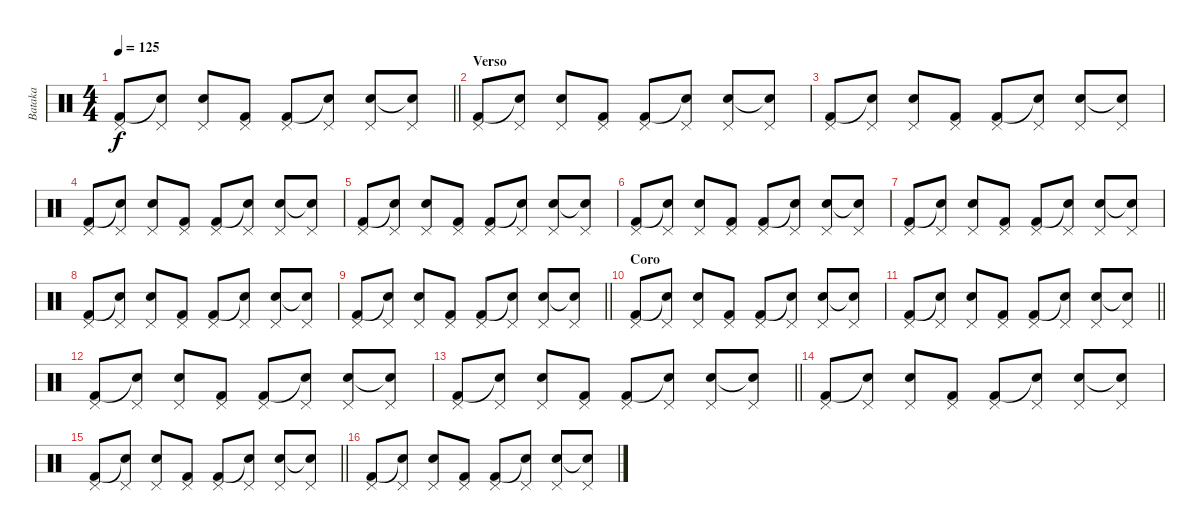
\track ("Bataka" "Bataka") {instrument percussion}
\staff {score}
\articulation defaults
\ts (4 4)
\tempo 125
\clef neutral
\barLineRight lightlight
\ks c
("Pedal Hi-Hat (hit)" "Kick (hit) 2").8{dy f} ("Pedal Hi-Hat (hit)" "Snare (hit)"{t}).8 ("Pedal Hi-Hat (hit)" "Electric Snare (hit)").8 ("Pedal Hi-Hat (hit)" "Kick (hit) 2").8 ("Pedal Hi-Hat (hit)" "Kick (hit) 2").8 ("Pedal Hi-Hat (hit)" "Snare (hit)"{t}).8 ("Pedal Hi-Hat (hit)" "Electric Snare (hit)").8 ("Pedal Hi-Hat (hit)" "Snare (hit)"{t}).8 |
\section ("" "Verso")
("Pedal Hi-Hat (hit)" "Kick (hit) 2").8 ("Pedal Hi-Hat (hit)" "Snare (hit)"{t}).8 ("Pedal Hi-Hat (hit)" "Electric Snare (hit)").8 ("Pedal Hi-Hat (hit)" "Kick (hit) 2").8 ("Pedal Hi-Hat (hit)" "Kick (hit) 2").8 ("Pedal Hi-Hat (hit)" "Snare (hit)"{t}).8 ("Pedal Hi-Hat (hit)" "Electric Snare (hit)").8 ("Pedal Hi-Hat (hit)" "Snare (hit)"{t}).8 |
("Pedal Hi-Hat (hit)" "Kick (hit) 2").8 ("Pedal Hi-Hat (hit)" "Snare (hit)"{t}).8 ("Pedal Hi-Hat (hit)" "Electric Snare (hit)").8 ("Pedal Hi-Hat (hit)" "Kick (hit) 2").8 ("Pedal Hi-Hat (hit)" "Kick (hit) 2").8 ("Pedal Hi-Hat (hit)" "Snare (hit)"{t}).8 ("Pedal Hi-Hat (hit)" "Electric Snare (hit)").8 ("Pedal Hi-Hat (hit)" "Snare (hit)"{t}).8 |
("Pedal Hi-Hat (hit)" "Kick (hit) 2").8 ("Pedal Hi-Hat (hit)" "Snare (hit)"{t}).8 ("Pedal Hi-Hat (hit)" "Electric Snare (hit)").8 ("Pedal Hi-Hat (hit)" "Kick (hit) 2").8 ("Pedal Hi-Hat (hit)" "Kick (hit) 2").8 ("Pedal Hi-Hat (hit)" "Snare (hit)"{t}).8 ("Pedal Hi-Hat (hit)" "Electric Snare (hit)").8 ("Pedal Hi-Hat (hit)" "Snare (hit)"{t}).8 |
("Pedal Hi-Hat (hit)" "Kick (hit) 2").8 ("Pedal Hi-Hat (hit)" "Snare (hit)"{t}).8 ("Pedal Hi-Hat (hit)" "Electric Snare (hit)").8 ("Pedal Hi-Hat (hit)" "Kick (hit) 2").8 ("Pedal Hi-Hat (hit)" "Kick (hit) 2").8 ("Pedal Hi-Hat (hit)" "Snare (hit)"{t}).8 ("Pedal Hi-Hat (hit)" "Electric Snare (hit)").8 ("Pedal Hi-Hat (hit)" "Snare (hit)"{t}).8 |
("Pedal Hi-Hat (hit)" "Kick (hit) 2").8 ("Pedal Hi-Hat (hit)" "Snare (hit)"{t}).8 ("Pedal Hi-Hat (hit)" "Electric Snare (hit)").8 ("Pedal Hi-Hat (hit)" "Kick (hit) 2").8 ("Pedal Hi-Hat (hit)" "Kick (hit) 2").8 ("Pedal Hi-Hat (hit)" "Snare (hit)"{t}).8 ("Pedal Hi-Hat (hit)" "Electric Snare (hit)").8 ("Pedal Hi-Hat (hit)" "Snare (hit)"{t}).8 |
("Pedal Hi-Hat (hit)" "Kick (hit) 2").8 ("Pedal Hi-Hat (hit)" "Snare (hit)"{t}).8 ("Pedal Hi-Hat (hit)" "Electric Snare (hit)").8 ("Pedal Hi-Hat (hit)" "Kick (hit) 2").8 ("Pedal Hi-Hat (hit)" "Kick (hit) 2").8 ("Pedal Hi-Hat (hit)" "Snare (hit)"{t}).8 ("Pedal Hi-Hat (hit)" "Electric Snare (hit)").8 ("Pedal Hi-Hat (hit)" "Snare (hit)"{t}).8 |
("Pedal Hi-Hat (hit)" "Kick (hit) 2").8 ("Pedal Hi-Hat (hit)" "Snare (hit)"{t}).8 ("Pedal Hi-Hat (hit)" "Electric Snare (hit)").8 ("Pedal Hi-Hat (hit)" "Kick (hit) 2").8 ("Pedal Hi-Hat (hit)" "Kick (hit) 2").8 ("Pedal Hi-Hat (hit)" "Snare (hit)"{t}).8 ("Pedal Hi-Hat (hit)" "Electric Snare (hit)").8 ("Pedal Hi-Hat (hit)" "Snare (hit)"{t}).8 |
\barLineRight lightlight
("Pedal Hi-Hat (hit)" "Kick (hit) 2").8 ("Pedal Hi-Hat (hit)" "Snare (hit)"{t}).8 ("Pedal Hi-Hat (hit)" "Electric Snare (hit)").8 ("Pedal Hi-Hat (hit)" "Kick (hit) 2").8 ("Pedal Hi-Hat (hit)" "Kick (hit) 2").8 ("Pedal Hi-Hat (hit)" "Snare (hit)"{t}).8 ("Pedal Hi-Hat (hit)" "Electric Snare (hit)").8 ("Pedal Hi-Hat (hit)" "Snare (hit)"{t}).8 |
\section ("" "Coro")
("Pedal Hi-Hat (hit)" "Kick (hit) 2").8 ("Pedal Hi-Hat (hit)" "Snare (hit)"{t}).8 ("Pedal Hi-Hat (hit)" "Electric Snare (hit)").8 ("Pedal Hi-Hat (hit)" "Kick (hit) 2").8 ("Pedal Hi-Hat (hit)" "Kick (hit) 2").8 ("Pedal Hi-Hat (hit)" "Snare (hit)"{t}).8 ("Pedal Hi-Hat (hit)" "Electric Snare (hit)").8 ("Pedal Hi-Hat (hit)" "Snare (hit)"{t}).8 |
\barLineRight lightlight
("Pedal Hi-Hat (hit)" "Kick (hit) 2").8 ("Pedal Hi-Hat (hit)" "Snare (hit)"{t}).8 ("Pedal Hi-Hat (hit)" "Electric Snare (hit)").8 ("Pedal Hi-Hat (hit)" "Kick (hit) 2").8 ("Pedal Hi-Hat (hit)" "Kick (hit) 2").8 ("Pedal Hi-Hat (hit)" "Snare (hit)"{t}).8 ("Pedal Hi-Hat (hit)" "Electric Snare (hit)").8 ("Pedal Hi-Hat (hit)" "Snare (hit)"{t}).8 |
("Pedal Hi-Hat (hit)" "Kick (hit) 2").8 ("Pedal Hi-Hat (hit)" "Snare (hit)"{t}).8 ("Pedal Hi-Hat (hit)" "Electric Snare (hit)").8 ("Pedal Hi-Hat (hit)" "Kick (hit) 2").8 ("Pedal Hi-Hat (hit)" "Kick (hit) 2").8 ("Pedal Hi-Hat (hit)" "Snare (hit)"{t}).8 ("Pedal Hi-Hat (hit)" "Electric Snare (hit)").8 ("Pedal Hi-Hat (hit)" "Snare (hit)"{t}).8 |
\barLineRight lightlight
("Pedal Hi-Hat (hit)" "Kick (hit) 2").8 ("Pedal Hi-Hat (hit)" "Snare (hit)"{t}).8 ("Pedal Hi-Hat (hit)" "Electric Snare (hit)").8 ("Pedal Hi-Hat (hit)" "Kick (hit) 2").8 ("Pedal Hi-Hat (hit)" "Kick (hit) 2").8 ("Pedal Hi-Hat (hit)" "Snare (hit)"{t}).8 ("Pedal Hi-Hat (hit)" "Electric Snare (hit)").8 ("Pedal Hi-Hat (hit)" "Snare (hit)"{t}).8 |
("Pedal Hi-Hat (hit)" "Kick (hit) 2").8 ("Pedal Hi-Hat (hit)" "Snare (hit)"{t}).8 ("Pedal Hi-Hat (hit)" "Electric Snare (hit)").8 ("Pedal Hi-Hat (hit)" "Kick (hit) 2").8 ("Pedal Hi-Hat (hit)" "Kick (hit) 2").8 ("Pedal Hi-Hat (hit)" "Snare (hit)"{t}).8 ("Pedal Hi-Hat (hit)" "Electric Snare (hit)").8 ("Pedal Hi-Hat (hit)" "Snare (hit)"{t}).8 |
\barLineRight lightlight
("Pedal Hi-Hat (hit)" "Kick (hit) 2").8 ("Pedal Hi-Hat (hit)" "Snare (hit)"{t}).8 ("Pedal Hi-Hat (hit)" "Electric Snare (hit)").8 ("Pedal Hi-Hat (hit)" "Kick (hit) 2").8 ("Pedal Hi-Hat (hit)" "Kick (hit) 2").8 ("Pedal Hi-Hat (hit)" "Snare (hit)"{t}).8 ("Pedal Hi-Hat (hit)" "Electric Snare (hit)").8 ("Pedal Hi-Hat (hit)" "Snare (hit)"{t}).8 |
("Pedal Hi-Hat (hit)" "Kick (hit) 2").8 ("Pedal Hi-Hat (hit)" "Snare (hit)"{t}).8 ("Pedal Hi-Hat (hit)" "Electric Snare (hit)").8 ("Pedal Hi-Hat (hit)" "Kick (hit) 2").8 ("Pedal Hi-Hat (hit)" "Kick (hit) 2").8 ("Pedal Hi-Hat (hit)" "Snare (hit)"{t}).8 ("Pedal Hi-Hat (hit)" "Electric Snare (hit)").8 ("Pedal Hi-Hat (hit)" "Snare (hit)"{t}).8
